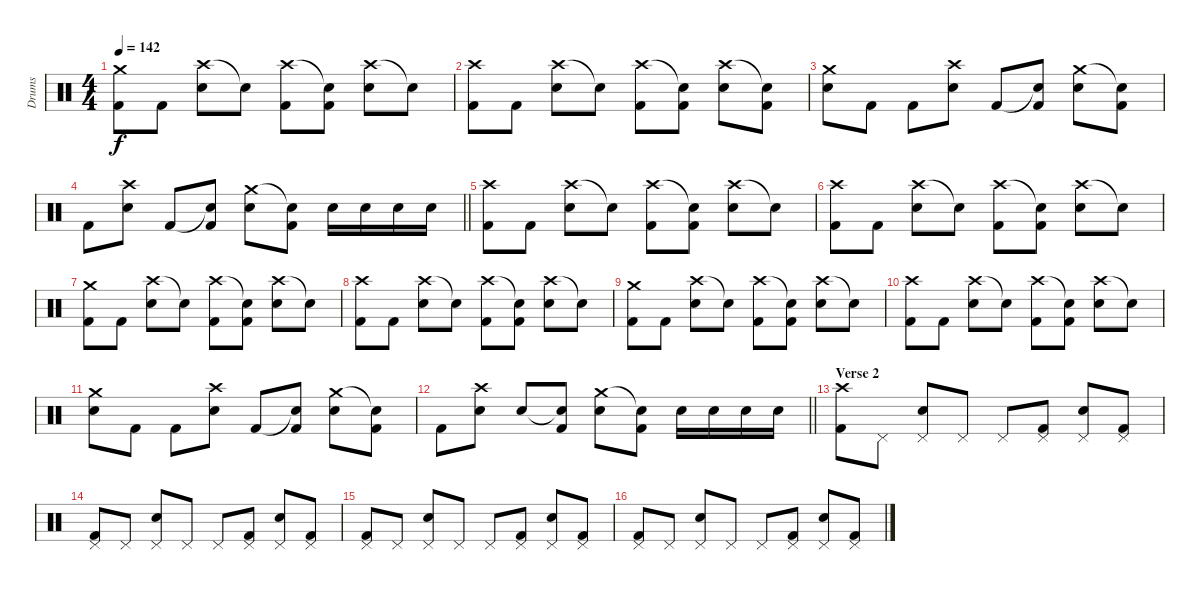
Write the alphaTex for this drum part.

\track ("Drums" "Drums") {instrument percussion}
\staff {score}
\articulation defaults
\ts (4 4)
\tempo 142
\clef neutral
\ks c
("Crash medium (hit)" "Kick (hit) 2").8{dy f} "Kick (hit) 2".8 ("Crash high (hit)" "Electric Snare (hit)").8 "Snare (hit)"{t}.8 ("Crash high (hit)" "Kick (hit) 2").8 ("Snare (hit)"{t} "Kick (hit) 2").8 ("Crash high (hit)" "Electric Snare (hit)").8 "Snare (hit)"{t}.8 |
("Crash high (hit)" "Kick (hit) 2").8 "Kick (hit) 2".8 ("Crash high (hit)" "Electric Snare (hit)").8 "Snare (hit)"{t}.8 ("Crash high (hit)" "Kick (hit) 2").8 ("Snare (hit)"{t} "Kick (hit) 2").8 ("Crash high (hit)" "Electric Snare (hit)").8 ("Snare (hit)"{t} "Kick (hit) 2").8 |
("Crash medium (hit)" "Electric Snare (hit)").8 "Kick (hit) 2".8 "Kick (hit) 2".8 ("Crash high (hit)" "Electric Snare (hit)").8 "Kick (hit) 2".8 ("Snare (hit)"{t} "Kick (hit) 2").8 ("Crash medium (hit)" "Electric Snare (hit)").8 ("Snare (hit)"{t} "Kick (hit) 2").8 |
\barLineRight lightlight "Kick (hit) 2".8
("Crash high (hit)" "Electric Snare (hit)").8 "Kick (hit) 2".8 ("Snare (hit)"{t} "Kick (hit) 2").8 ("Crash medium (hit)" "Electric Snare (hit)").8 ("Snare (hit)"{t} "Kick (hit) 2").8 "Electric Snare (hit)".16 "Electric Snare (hit)".16 "Electric Snare (hit)".16 "Electric Snare (hit)".16 |
("Crash high (hit)" "Kick (hit) 2").8 "Kick (hit) 2".8 ("Crash high (hit)" "Electric Snare (hit)").8 "Snare (hit)"{t}.8 ("Crash high (hit)" "Kick (hit) 2").8 ("Snare (hit)"{t} "Kick (hit) 2").8 ("Crash high (hit)" "Electric Snare (hit)").8 "Snare (hit)"{t}.8 |
("Crash high (hit)" "Kick (hit) 2").8 "Kick (hit) 2".8 ("Crash high (hit)" "Electric Snare (hit)").8 "Snare (hit)"{t}.8 ("Crash high (hit)" "Kick (hit) 2").8 ("Snare (hit)"{t} "Kick (hit) 2").8 ("Crash high (hit)" "Electric Snare (hit)").8 "Snare (hit)"{t}.8 |
("Crash medium (hit)" "Kick (hit) 2").8 "Kick (hit) 2".8 ("Crash high (hit)" "Electric Snare (hit)").8 "Snare (hit)"{t}.8 ("Crash high (hit)" "Kick (hit) 2").8 ("Snare (hit)"{t} "Kick (hit) 2").8 ("Crash high (hit)" "Electric Snare (hit)").8 "Snare (hit)"{t}.8 |
("Crash high (hit)" "Kick (hit) 2").8 "Kick (hit) 2".8 ("Crash high (hit)" "Electric Snare (hit)").8 "Snare (hit)"{t}.8 ("Crash high (hit)" "Kick (hit) 2").8 ("Snare (hit)"{t} "Kick (hit) 2").8 ("Crash high (hit)" "Electric Snare (hit)").8 "Snare (hit)"{t}.8 |
("Crash medium (hit)" "Kick (hit) 2").8 "Kick (hit) 2".8 ("Crash high (hit)" "Electric Snare (hit)").8 "Snare (hit)"{t}.8 ("Crash high (hit)" "Kick (hit) 2").8 ("Snare (hit)"{t} "Kick (hit) 2").8 ("Crash high (hit)" "Electric Snare (hit)").8 "Snare (hit)"{t}.8 |
("Crash high (hit)" "Kick (hit) 2").8 "Kick (hit) 2".8 ("Crash high (hit)" "Electric Snare (hit)").8 "Snare (hit)"{t}.8 ("Crash high (hit)" "Kick (hit) 2").8 ("Snare (hit)"{t} "Kick (hit) 2").8 ("Crash high (hit)" "Electric Snare (hit)").8 "Snare (hit)"{t}.8 |
("Crash medium (hit)" "Electric Snare (hit)").8 "Kick (hit) 2".8 "Kick (hit) 2".8 ("Crash high (hit)" "Electric Snare (hit)").8 "Kick (hit) 2".8 ("Snare (hit)"{t} "Kick (hit) 2").8 ("Crash medium (hit)" "Electric Snare (hit)").8 ("Snare (hit)"{t} "Kick (hit) 2").8 |
\barLineRight lightlight "Kick (hit) 2".8
("Crash high (hit)" "Electric Snare (hit)").8 "Electric Snare (hit)".8 ("Snare (hit)"{t} "Kick (hit) 2").8 ("Crash medium (hit)" "Electric Snare (hit)").8 ("Snare (hit)"{t} "Kick (hit) 2").8 "Electric Snare (hit)".16 "Electric Snare (hit)".16 "Electric Snare (hit)".16 "Electric Snare (hit)".16 |
\section ("" "Verse 2")
("Crash high (hit)" "Kick (hit) 2").8 "Pedal Hi-Hat (hit)".8 ("Pedal Hi-Hat (hit)" "Snare (hit) 2").8 "Pedal Hi-Hat (hit)".8 "Pedal Hi-Hat (hit)".8 ("Pedal Hi-Hat (hit)" "Kick (hit) 2").8 ("Pedal Hi-Hat (hit)" "Snare (hit) 2").8 ("Pedal Hi-Hat (hit)" "Kick (hit) 2").8 |
("Pedal Hi-Hat (hit)" "Kick (hit) 2").8 "Pedal Hi-Hat (hit)".8 ("Pedal Hi-Hat (hit)" "Snare (hit) 2").8 "Pedal Hi-Hat (hit)".8 "Pedal Hi-Hat (hit)".8 ("Pedal Hi-Hat (hit)" "Kick (hit) 2").8 ("Pedal Hi-Hat (hit)" "Snare (hit) 2").8 ("Pedal Hi-Hat (hit)" "Kick (hit) 2").8 |
("Pedal Hi-Hat (hit)" "Kick (hit) 2").8 "Pedal Hi-Hat (hit)".8 ("Pedal Hi-Hat (hit)" "Snare (hit) 2").8 "Pedal Hi-Hat (hit)".8 "Pedal Hi-Hat (hit)".8 ("Pedal Hi-Hat (hit)" "Kick (hit) 2").8 ("Pedal Hi-Hat (hit)" "Snare (hit) 2").8 ("Pedal Hi-Hat (hit)" "Kick (hit) 2").8 |
("Pedal Hi-Hat (hit)" "Kick (hit) 2").8 "Pedal Hi-Hat (hit)".8 ("Pedal Hi-Hat (hit)" "Snare (hit) 2").8 "Pedal Hi-Hat (hit)".8 "Pedal Hi-Hat (hit)".8 ("Pedal Hi-Hat (hit)" "Kick (hit) 2").8 ("Pedal Hi-Hat (hit)" "Snare (hit) 2").8 ("Pedal Hi-Hat (hit)" "Kick (hit) 2").8
